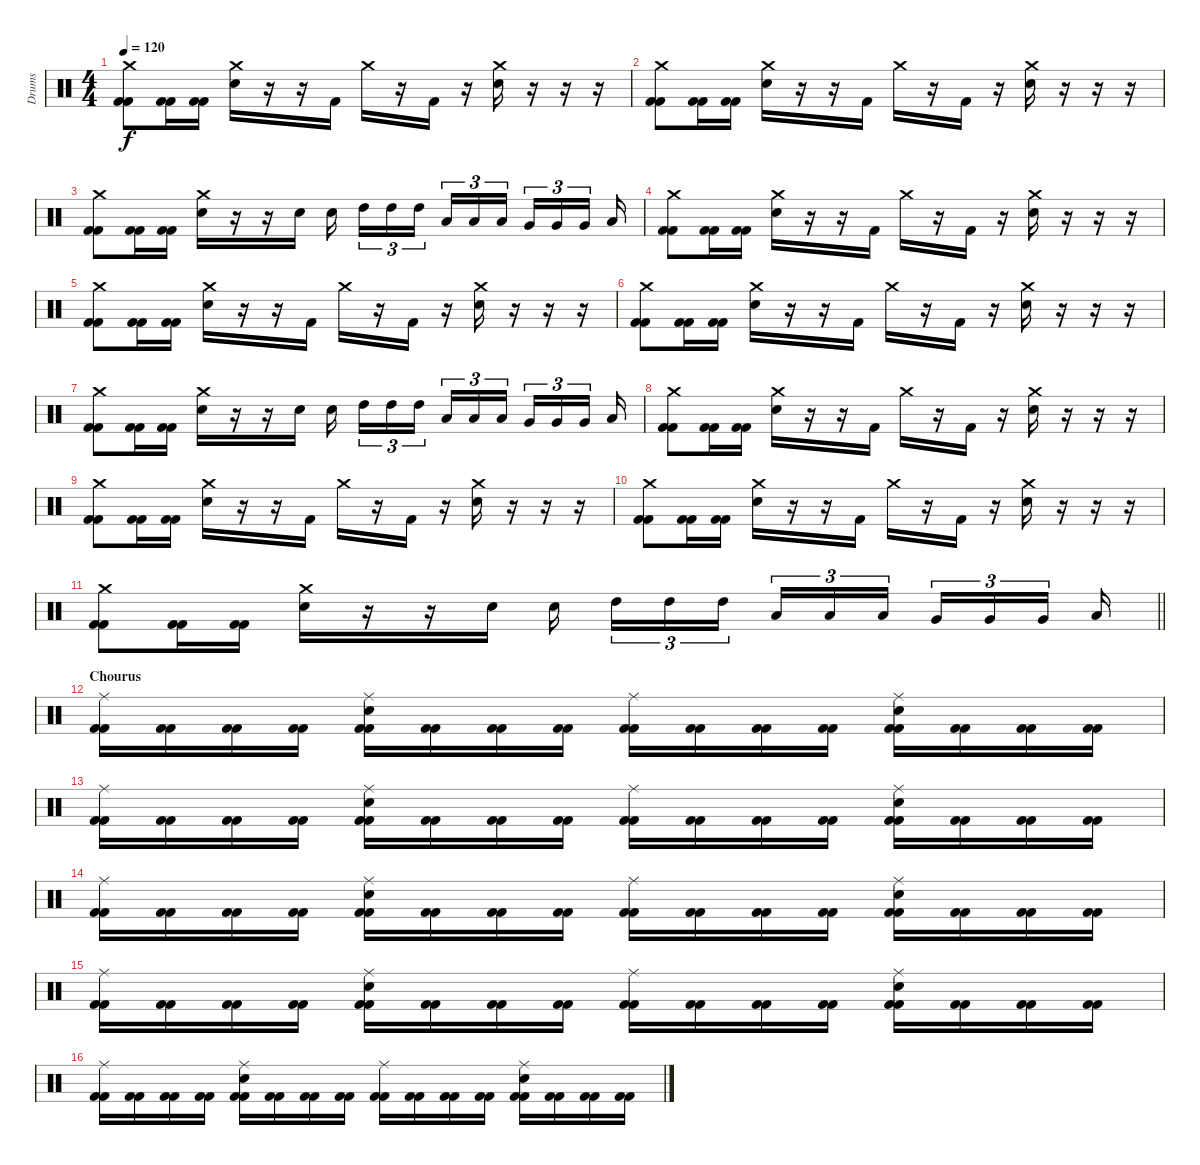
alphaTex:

\track ("Drums" "Drums") {instrument percussion}
\staff {score}
\articulation defaults
\ts (4 4)
\tempo 120
\clef neutral
\ks c
("Kick (hit) 2" "Crash medium (hit)" "Kick (hit) 2").8{dy f} ("Kick (hit) 2" "Kick (hit) 2").16 ("Kick (hit) 2" "Kick (hit) 2").16 ("Crash medium (hit)" "Electric Snare (hit)").16 r.16 r.16 "Kick (hit) 2".16 "Crash medium (hit)".16 r.16 "Kick (hit) 2".16 r.16 ("Crash medium (hit)" "Electric Snare (hit)").16 r.16 r.16 r.16 |
("Kick (hit) 2" "Crash medium (hit)" "Kick (hit) 2").8 ("Kick (hit) 2" "Kick (hit) 2").16 ("Kick (hit) 2" "Kick (hit) 2").16 ("Crash medium (hit)" "Electric Snare (hit)").16 r.16 r.16 "Kick (hit) 2".16 "Crash medium (hit)".16 r.16 "Kick (hit) 2".16 r.16 ("Crash medium (hit)" "Electric Snare (hit)").16 r.16 r.16 r.16 |
("Kick (hit) 2" "Crash medium (hit)" "Kick (hit) 2").8 ("Kick (hit) 2" "Kick (hit) 2").16 ("Kick (hit) 2" "Kick (hit) 2").16 ("Crash medium (hit)" "Electric Snare (hit)").16 r.16 r.16 "Electric Snare (hit)".16 "Electric Snare (hit)".16{beam splitsecondary} "High Tom (hit)".16{tu (3 2)} "High Tom (hit)".16{tu (3 2)} "High Tom (hit)".16{tu (3 2) beam splitsecondary} "Low Tom (hit)".16{tu (3 2)} "Low Tom (hit)".16{tu (3 2)} "Low Tom (hit)".16{tu (3 2) beam splitsecondary} "Very Low Tom (hit)".16{tu (3 2)} "Very Low Tom (hit)".16{tu (3 2)} "Very Low Tom (hit)".16{tu (3 2) beam splitsecondary} "Low Floor Tom (hit)".16 |
("Kick (hit) 2" "Crash medium (hit)" "Kick (hit) 2").8 ("Kick (hit) 2" "Kick (hit) 2").16 ("Kick (hit) 2" "Kick (hit) 2").16 ("Crash medium (hit)" "Electric Snare (hit)").16 r.16 r.16 "Kick (hit) 2".16 "Crash medium (hit)".16 r.16 "Kick (hit) 2".16 r.16 ("Crash medium (hit)" "Electric Snare (hit)").16 r.16 r.16 r.16 |
("Kick (hit) 2" "Crash medium (hit)" "Kick (hit) 2").8 ("Kick (hit) 2" "Kick (hit) 2").16 ("Kick (hit) 2" "Kick (hit) 2").16 ("Crash medium (hit)" "Electric Snare (hit)").16 r.16 r.16 "Kick (hit) 2".16 "Crash medium (hit)".16 r.16 "Kick (hit) 2".16 r.16 ("Crash medium (hit)" "Electric Snare (hit)").16 r.16 r.16 r.16 |
("Kick (hit) 2" "Crash medium (hit)" "Kick (hit) 2").8 ("Kick (hit) 2" "Kick (hit) 2").16 ("Kick (hit) 2" "Kick (hit) 2").16 ("Crash medium (hit)" "Electric Snare (hit)").16 r.16 r.16 "Kick (hit) 2".16 "Crash medium (hit)".16 r.16 "Kick (hit) 2".16 r.16 ("Crash medium (hit)" "Electric Snare (hit)").16 r.16 r.16 r.16 |
("Kick (hit) 2" "Crash medium (hit)" "Kick (hit) 2").8 ("Kick (hit) 2" "Kick (hit) 2").16 ("Kick (hit) 2" "Kick (hit) 2").16 ("Crash medium (hit)" "Electric Snare (hit)").16 r.16 r.16 "Electric Snare (hit)".16 "Electric Snare (hit)".16{beam splitsecondary} "High Tom (hit)".16{tu (3 2)} "High Tom (hit)".16{tu (3 2)} "High Tom (hit)".16{tu (3 2) beam splitsecondary} "Low Tom (hit)".16{tu (3 2)} "Low Tom (hit)".16{tu (3 2)} "Low Tom (hit)".16{tu (3 2) beam splitsecondary} "Very Low Tom (hit)".16{tu (3 2)} "Very Low Tom (hit)".16{tu (3 2)} "Very Low Tom (hit)".16{tu (3 2) beam splitsecondary} "Low Floor Tom (hit)".16 |
("Kick (hit) 2" "Crash medium (hit)" "Kick (hit) 2").8 ("Kick (hit) 2" "Kick (hit) 2").16 ("Kick (hit) 2" "Kick (hit) 2").16 ("Crash medium (hit)" "Electric Snare (hit)").16 r.16 r.16 "Kick (hit) 2".16 "Crash medium (hit)".16 r.16 "Kick (hit) 2".16 r.16 ("Crash medium (hit)" "Electric Snare (hit)").16 r.16 r.16 r.16 |
("Kick (hit) 2" "Crash medium (hit)" "Kick (hit) 2").8 ("Kick (hit) 2" "Kick (hit) 2").16 ("Kick (hit) 2" "Kick (hit) 2").16 ("Crash medium (hit)" "Electric Snare (hit)").16 r.16 r.16 "Kick (hit) 2".16 "Crash medium (hit)".16 r.16 "Kick (hit) 2".16 r.16 ("Crash medium (hit)" "Electric Snare (hit)").16 r.16 r.16 r.16 |
("Kick (hit) 2" "Crash medium (hit)" "Kick (hit) 2").8 ("Kick (hit) 2" "Kick (hit) 2").16 ("Kick (hit) 2" "Kick (hit) 2").16 ("Crash medium (hit)" "Electric Snare (hit)").16 r.16 r.16 "Kick (hit) 2".16 "Crash medium (hit)".16 r.16 "Kick (hit) 2".16 r.16 ("Crash medium (hit)" "Electric Snare (hit)").16 r.16 r.16 r.16 |
\barLineRight lightlight
("Kick (hit) 2" "Crash medium (hit)" "Kick (hit) 2").8 ("Kick (hit) 2" "Kick (hit) 2").16 ("Kick (hit) 2" "Kick (hit) 2").16 ("Crash medium (hit)" "Electric Snare (hit)").16 r.16 r.16 "Electric Snare (hit)".16 "Electric Snare (hit)".16{beam splitsecondary} "High Tom (hit)".16{tu (3 2)} "High Tom (hit)".16{tu (3 2)} "High Tom (hit)".16{tu (3 2) beam splitsecondary} "Low Tom (hit)".16{tu (3 2)} "Low Tom (hit)".16{tu (3 2)} "Low Tom (hit)".16{tu (3 2) beam splitsecondary} "Very Low Tom (hit)".16{tu (3 2)} "Very Low Tom (hit)".16{tu (3 2)} "Very Low Tom (hit)".16{tu (3 2) beam splitsecondary} "Low Floor Tom (hit)".16 |
\section ("" "Chourus")
("Kick (hit) 2" "Ride (middle)" "Kick (hit) 2").16 ("Kick (hit) 2" "Kick (hit) 2").16 ("Kick (hit) 2" "Kick (hit) 2").16 ("Kick (hit) 2" "Kick (hit) 2").16 ("Kick (hit) 2" "Ride (middle)" "Electric Snare (hit)" "Kick (hit) 2").16 ("Kick (hit) 2" "Kick (hit) 2").16 ("Kick (hit) 2" "Kick (hit) 2").16 ("Kick (hit) 2" "Kick (hit) 2").16 ("Kick (hit) 2" "Ride (middle)" "Kick (hit) 2").16 ("Kick (hit) 2" "Kick (hit) 2").16 ("Kick (hit) 2" "Kick (hit) 2").16 ("Kick (hit) 2" "Kick (hit) 2").16 ("Kick (hit) 2" "Ride (middle)" "Electric Snare (hit)" "Kick (hit) 2").16 ("Kick (hit) 2" "Kick (hit) 2").16 ("Kick (hit) 2" "Kick (hit) 2").16 ("Kick (hit) 2" "Kick (hit) 2").16 |
("Kick (hit) 2" "Ride (middle)" "Kick (hit) 2").16 ("Kick (hit) 2" "Kick (hit) 2").16 ("Kick (hit) 2" "Kick (hit) 2").16 ("Kick (hit) 2" "Kick (hit) 2").16 ("Kick (hit) 2" "Ride (middle)" "Electric Snare (hit)" "Kick (hit) 2").16 ("Kick (hit) 2" "Kick (hit) 2").16 ("Kick (hit) 2" "Kick (hit) 2").16 ("Kick (hit) 2" "Kick (hit) 2").16 ("Kick (hit) 2" "Ride (middle)" "Kick (hit) 2").16 ("Kick (hit) 2" "Kick (hit) 2").16 ("Kick (hit) 2" "Kick (hit) 2").16 ("Kick (hit) 2" "Kick (hit) 2").16 ("Kick (hit) 2" "Ride (middle)" "Electric Snare (hit)" "Kick (hit) 2").16 ("Kick (hit) 2" "Kick (hit) 2").16 ("Kick (hit) 2" "Kick (hit) 2").16 ("Kick (hit) 2" "Kick (hit) 2").16 |
("Kick (hit) 2" "Ride (middle)" "Kick (hit) 2").16 ("Kick (hit) 2" "Kick (hit) 2").16 ("Kick (hit) 2" "Kick (hit) 2").16 ("Kick (hit) 2" "Kick (hit) 2").16 ("Kick (hit) 2" "Ride (middle)" "Electric Snare (hit)" "Kick (hit) 2").16 ("Kick (hit) 2" "Kick (hit) 2").16 ("Kick (hit) 2" "Kick (hit) 2").16 ("Kick (hit) 2" "Kick (hit) 2").16 ("Kick (hit) 2" "Ride (middle)" "Kick (hit) 2").16 ("Kick (hit) 2" "Kick (hit) 2").16 ("Kick (hit) 2" "Kick (hit) 2").16 ("Kick (hit) 2" "Kick (hit) 2").16 ("Kick (hit) 2" "Ride (middle)" "Electric Snare (hit)" "Kick (hit) 2").16 ("Kick (hit) 2" "Kick (hit) 2").16 ("Kick (hit) 2" "Kick (hit) 2").16 ("Kick (hit) 2" "Kick (hit) 2").16 |
("Kick (hit) 2" "Ride (middle)" "Kick (hit) 2").16 ("Kick (hit) 2" "Kick (hit) 2").16 ("Kick (hit) 2" "Kick (hit) 2").16 ("Kick (hit) 2" "Kick (hit) 2").16 ("Kick (hit) 2" "Ride (middle)" "Electric Snare (hit)" "Kick (hit) 2").16 ("Kick (hit) 2" "Kick (hit) 2").16 ("Kick (hit) 2" "Kick (hit) 2").16 ("Kick (hit) 2" "Kick (hit) 2").16 ("Kick (hit) 2" "Ride (middle)" "Kick (hit) 2").16 ("Kick (hit) 2" "Kick (hit) 2").16 ("Kick (hit) 2" "Kick (hit) 2").16 ("Kick (hit) 2" "Kick (hit) 2").16 ("Kick (hit) 2" "Ride (middle)" "Electric Snare (hit)" "Kick (hit) 2").16 ("Kick (hit) 2" "Kick (hit) 2").16 ("Kick (hit) 2" "Kick (hit) 2").16 ("Kick (hit) 2" "Kick (hit) 2").16 |
("Kick (hit) 2" "Ride (middle)" "Kick (hit) 2").16 ("Kick (hit) 2" "Kick (hit) 2").16 ("Kick (hit) 2" "Kick (hit) 2").16 ("Kick (hit) 2" "Kick (hit) 2").16 ("Kick (hit) 2" "Ride (middle)" "Electric Snare (hit)" "Kick (hit) 2").16 ("Kick (hit) 2" "Kick (hit) 2").16 ("Kick (hit) 2" "Kick (hit) 2").16 ("Kick (hit) 2" "Kick (hit) 2").16 ("Kick (hit) 2" "Ride (middle)" "Kick (hit) 2").16 ("Kick (hit) 2" "Kick (hit) 2").16 ("Kick (hit) 2" "Kick (hit) 2").16 ("Kick (hit) 2" "Kick (hit) 2").16 ("Kick (hit) 2" "Ride (middle)" "Electric Snare (hit)" "Kick (hit) 2").16 ("Kick (hit) 2" "Kick (hit) 2").16 ("Kick (hit) 2" "Kick (hit) 2").16 ("Kick (hit) 2" "Kick (hit) 2").16
